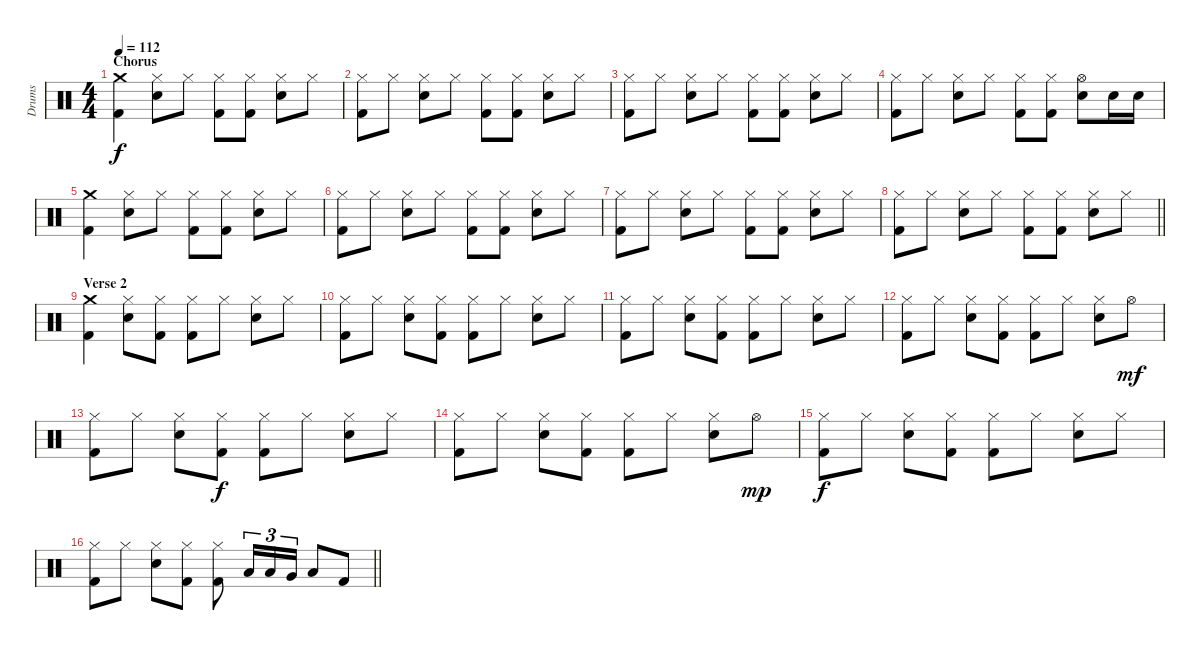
\track ("Drums" "Drums") {instrument percussion}
\staff {score}
\articulation defaults
\ts (4 4)
\section ("" "Chorus")
\tempo 112
\clef neutral
\ks c
("Crash medium (hit)" "Kick (hit) 2").4{dy f} ("Hi-Hat (closed)" "Snare (hit) 2").8 "Hi-Hat (closed)".8 ("Hi-Hat (closed)" "Kick (hit) 2").8 ("Hi-Hat (closed)" "Kick (hit) 2").8 ("Hi-Hat (closed)" "Snare (hit) 2").8 "Hi-Hat (closed)".8 |
("Hi-Hat (closed)" "Kick (hit) 2").8 "Hi-Hat (closed)".8 ("Hi-Hat (closed)" "Snare (hit) 2").8 "Hi-Hat (closed)".8 ("Hi-Hat (closed)" "Kick (hit) 2").8 ("Hi-Hat (closed)" "Kick (hit) 2").8 ("Hi-Hat (closed)" "Snare (hit) 2").8 "Hi-Hat (closed)".8 |
("Hi-Hat (closed)" "Kick (hit) 2").8 "Hi-Hat (closed)".8 ("Hi-Hat (closed)" "Snare (hit) 2").8 "Hi-Hat (closed)".8 ("Hi-Hat (closed)" "Kick (hit) 2").8 ("Hi-Hat (closed)" "Kick (hit) 2").8 ("Hi-Hat (closed)" "Snare (hit) 2").8 "Hi-Hat (closed)".8 |
("Hi-Hat (closed)" "Kick (hit) 2").8 "Hi-Hat (closed)".8 ("Hi-Hat (closed)" "Snare (hit) 2").8 "Hi-Hat (closed)".8 ("Hi-Hat (closed)" "Kick (hit) 2").8 ("Hi-Hat (closed)" "Kick (hit) 2").8 ("Hi-Hat (open)" "Snare (hit) 2").8 "Snare (hit) 2".16 "Snare (hit) 2".16 |
("Crash medium (hit)" "Kick (hit) 2").4 ("Hi-Hat (closed)" "Snare (hit) 2").8 "Hi-Hat (closed)".8 ("Hi-Hat (closed)" "Kick (hit) 2").8 ("Hi-Hat (closed)" "Kick (hit) 2").8 ("Hi-Hat (closed)" "Snare (hit) 2").8 "Hi-Hat (closed)".8 |
("Hi-Hat (closed)" "Kick (hit) 2").8 "Hi-Hat (closed)".8 ("Hi-Hat (closed)" "Snare (hit) 2").8 "Hi-Hat (closed)".8 ("Hi-Hat (closed)" "Kick (hit) 2").8 ("Hi-Hat (closed)" "Kick (hit) 2").8 ("Hi-Hat (closed)" "Snare (hit) 2").8 "Hi-Hat (closed)".8 |
("Hi-Hat (closed)" "Kick (hit) 2").8 "Hi-Hat (closed)".8 ("Hi-Hat (closed)" "Snare (hit) 2").8 "Hi-Hat (closed)".8 ("Hi-Hat (closed)" "Kick (hit) 2").8 ("Hi-Hat (closed)" "Kick (hit) 2").8 ("Hi-Hat (closed)" "Snare (hit) 2").8 "Hi-Hat (closed)".8 |
\barLineRight lightlight
("Hi-Hat (closed)" "Kick (hit) 2").8 "Hi-Hat (closed)".8 ("Hi-Hat (closed)" "Snare (hit) 2").8 "Hi-Hat (closed)".8 ("Hi-Hat (closed)" "Kick (hit) 2").8 ("Hi-Hat (closed)" "Kick (hit) 2").8 ("Hi-Hat (closed)" "Snare (hit) 2").8 "Hi-Hat (closed)".8 |
\section ("" "Verse 2")
("Crash medium (hit)" "Kick (hit) 2").4 ("Hi-Hat (closed)" "Snare (hit) 2").8 ("Hi-Hat (closed)" "Kick (hit) 2").8 ("Hi-Hat (closed)" "Kick (hit) 2").8 "Hi-Hat (closed)".8 ("Hi-Hat (closed)" "Snare (hit) 2").8 "Hi-Hat (closed)".8 |
("Hi-Hat (closed)" "Kick (hit) 2").8 "Hi-Hat (closed)".8 ("Hi-Hat (closed)" "Snare (hit) 2").8 ("Hi-Hat (closed)" "Kick (hit) 2").8 ("Hi-Hat (closed)" "Kick (hit) 2").8 "Hi-Hat (closed)".8 ("Hi-Hat (closed)" "Snare (hit) 2").8 "Hi-Hat (closed)".8 |
("Hi-Hat (closed)" "Kick (hit) 2").8 "Hi-Hat (closed)".8 ("Hi-Hat (closed)" "Snare (hit) 2").8 ("Hi-Hat (closed)" "Kick (hit) 2").8 ("Hi-Hat (closed)" "Kick (hit) 2").8 "Hi-Hat (closed)".8 ("Hi-Hat (closed)" "Snare (hit) 2").8 "Hi-Hat (closed)".8 |
("Hi-Hat (closed)" "Kick (hit) 2").8 "Hi-Hat (closed)".8 ("Hi-Hat (closed)" "Snare (hit) 2").8 ("Hi-Hat (closed)" "Kick (hit) 2").8 ("Hi-Hat (closed)" "Kick (hit) 2").8 "Hi-Hat (closed)".8 ("Hi-Hat (closed)" "Snare (hit) 2").8 "Hi-Hat (open)".8{dy mf} |
("Hi-Hat (closed)" "Kick (hit) 2").8 "Hi-Hat (closed)".8 ("Hi-Hat (closed)" "Snare (hit) 2").8 ("Hi-Hat (closed)" "Kick (hit) 2").8{dy f} ("Hi-Hat (closed)" "Kick (hit) 2").8 "Hi-Hat (closed)".8 ("Hi-Hat (closed)" "Snare (hit) 2").8 "Hi-Hat (closed)".8 |
("Hi-Hat (closed)" "Kick (hit) 2").8 "Hi-Hat (closed)".8 ("Hi-Hat (closed)" "Snare (hit) 2").8 ("Hi-Hat (closed)" "Kick (hit) 2").8 ("Hi-Hat (closed)" "Kick (hit) 2").8 "Hi-Hat (closed)".8 ("Hi-Hat (closed)" "Snare (hit) 2").8 "Hi-Hat (open)".8{dy mp} |
("Hi-Hat (closed)" "Kick (hit) 2").8{dy f} "Hi-Hat (closed)".8 ("Hi-Hat (closed)" "Snare (hit) 2").8 ("Hi-Hat (closed)" "Kick (hit) 2").8 ("Hi-Hat (closed)" "Kick (hit) 2").8 "Hi-Hat (closed)".8 ("Hi-Hat (closed)" "Snare (hit) 2").8 "Hi-Hat (closed)".8 |
\barLineRight lightlight
("Hi-Hat (closed)" "Kick (hit) 2").8 "Hi-Hat (closed)".8 ("Hi-Hat (closed)" "Snare (hit) 2").8 ("Hi-Hat (closed)" "Kick (hit) 2").8 ("Hi-Hat (closed)" "Kick (hit) 2").8 "Low Tom (hit)".16{tu (3 2)} "Low Tom (hit)".16{tu (3 2)} "Very Low Tom (hit)".16{tu (3 2)} "Low Floor Tom (hit)".8 "Kick (hit) 2".8
